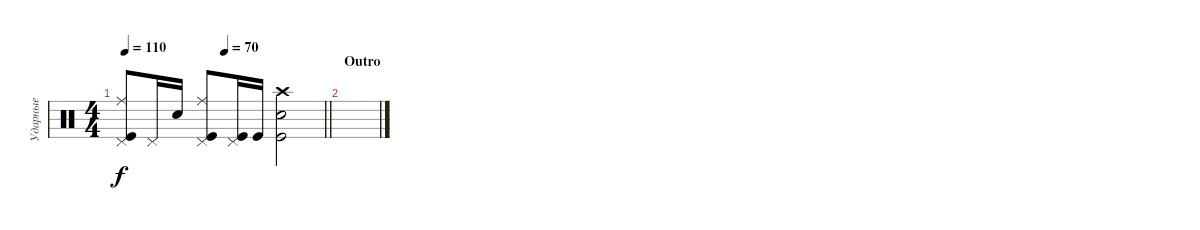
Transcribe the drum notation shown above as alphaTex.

\track ("Ударные" "Ударные") {instrument percussion}
\staff {score}
\articulation defaults
\ts (4 4)
\tempo 110
\tempo (70 0.5)
\clef neutral
\barLineRight lightlight
\ks c
("Kick (hit)" "Ride (middle)" "Pedal Hi-Hat (hit)").8{dy f} "Pedal Hi-Hat (hit)".16 "Snare (hit) 2".16 ("Kick (hit)" "Ride (middle)" "Pedal Hi-Hat (hit)").8 ("Pedal Hi-Hat (hit)" "Kick (hit)").16 "Kick (hit)".16 ("Snare (hit) 2" "Kick (hit)" "Crash high (hit)").2 |
\section ("" "Outro")
